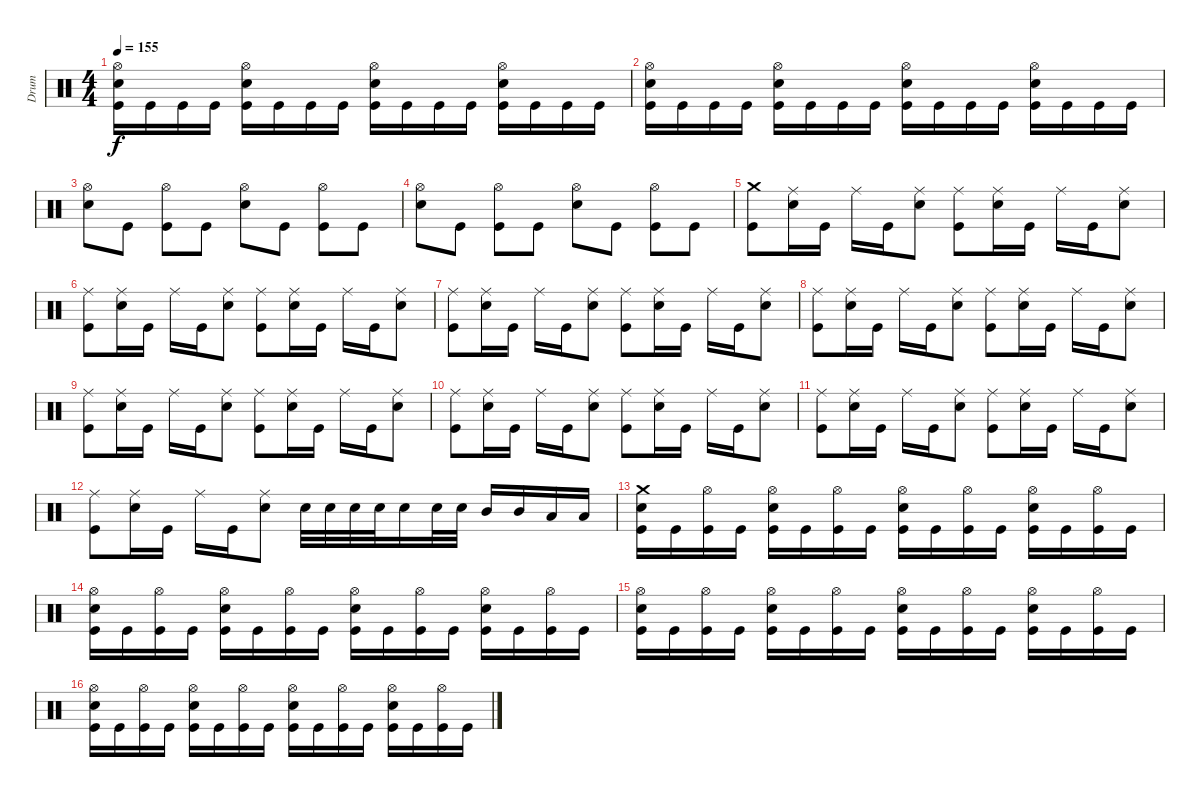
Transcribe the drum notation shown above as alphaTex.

\track ("Drum" "Drum") {instrument percussion}
\staff {score}
\articulation defaults
\ts (4 4)
\tempo 155
\clef neutral
\ks c
("Kick (hit)" "Electric Snare (hit)" "Hi-Hat (open)").16{dy f} "Kick (hit)".16 "Kick (hit)".16 "Kick (hit)".16 ("Kick (hit)" "Electric Snare (hit)" "Hi-Hat (open)").16 "Kick (hit)".16 "Kick (hit)".16 "Kick (hit)".16 ("Kick (hit)" "Electric Snare (hit)" "Hi-Hat (open)").16 "Kick (hit)".16 "Kick (hit)".16 "Kick (hit)".16 ("Kick (hit)" "Electric Snare (hit)" "Hi-Hat (open)").16 "Kick (hit)".16 "Kick (hit)".16 "Kick (hit)".16 |
("Kick (hit)" "Electric Snare (hit)" "Hi-Hat (open)").16 "Kick (hit)".16 "Kick (hit)".16 "Kick (hit)".16 ("Kick (hit)" "Electric Snare (hit)" "Hi-Hat (open)").16 "Kick (hit)".16 "Kick (hit)".16 "Kick (hit)".16 ("Kick (hit)" "Electric Snare (hit)" "Hi-Hat (open)").16 "Kick (hit)".16 "Kick (hit)".16 "Kick (hit)".16 ("Kick (hit)" "Electric Snare (hit)" "Hi-Hat (open)").16 "Kick (hit)".16 "Kick (hit)".16 "Kick (hit)".16 |
("Electric Snare (hit)" "Hi-Hat (open)").8 "Kick (hit)".8 ("Kick (hit)" "Hi-Hat (open)").8 "Kick (hit)".8 ("Electric Snare (hit)" "Hi-Hat (open)").8 "Kick (hit)".8 ("Kick (hit)" "Hi-Hat (open)").8 "Kick (hit)".8 |
("Electric Snare (hit)" "Hi-Hat (open)").8 "Kick (hit)".8 ("Kick (hit)" "Hi-Hat (open)").8 "Kick (hit)".8 ("Electric Snare (hit)" "Hi-Hat (open)").8 "Kick (hit)".8 ("Kick (hit)" "Hi-Hat (open)").8 "Kick (hit)".8 |
("Kick (hit)" "Crash medium (hit)").8 ("Electric Snare (hit)" "Ride (middle)").16 "Kick (hit)".16 "Ride (middle)".16 "Kick (hit)".16 ("Electric Snare (hit)" "Ride (middle)").8 ("Kick (hit)" "Ride (middle)").8 ("Electric Snare (hit)" "Ride (middle)").16 "Kick (hit)".16 "Ride (middle)".16 "Kick (hit)".16 ("Electric Snare (hit)" "Ride (middle)").8 |
("Kick (hit)" "Ride (middle)").8 ("Electric Snare (hit)" "Ride (middle)").16 "Kick (hit)".16 "Ride (middle)".16 "Kick (hit)".16 ("Electric Snare (hit)" "Ride (middle)").8 ("Kick (hit)" "Ride (middle)").8 ("Electric Snare (hit)" "Ride (middle)").16 "Kick (hit)".16 "Ride (middle)".16 "Kick (hit)".16 ("Electric Snare (hit)" "Ride (middle)").8 |
("Kick (hit)" "Ride (middle)").8 ("Electric Snare (hit)" "Ride (middle)").16 "Kick (hit)".16 "Ride (middle)".16 "Kick (hit)".16 ("Electric Snare (hit)" "Ride (middle)").8 ("Kick (hit)" "Ride (middle)").8 ("Electric Snare (hit)" "Ride (middle)").16 "Kick (hit)".16 "Ride (middle)".16 "Kick (hit)".16 ("Electric Snare (hit)" "Ride (middle)").8 |
("Kick (hit)" "Ride (middle)").8 ("Electric Snare (hit)" "Ride (middle)").16 "Kick (hit)".16 "Ride (middle)".16 "Kick (hit)".16 ("Electric Snare (hit)" "Ride (middle)").8 ("Kick (hit)" "Ride (middle)").8 ("Electric Snare (hit)" "Ride (middle)").16 "Kick (hit)".16 "Ride (middle)".16 "Kick (hit)".16 ("Electric Snare (hit)" "Ride (middle)").8 |
("Kick (hit)" "Ride (middle)").8 ("Electric Snare (hit)" "Ride (middle)").16 "Kick (hit)".16 "Ride (middle)".16 "Kick (hit)".16 ("Electric Snare (hit)" "Ride (middle)").8 ("Kick (hit)" "Ride (middle)").8 ("Electric Snare (hit)" "Ride (middle)").16 "Kick (hit)".16 "Ride (middle)".16 "Kick (hit)".16 ("Electric Snare (hit)" "Ride (middle)").8 |
("Kick (hit)" "Ride (middle)").8 ("Electric Snare (hit)" "Ride (middle)").16 "Kick (hit)".16 "Ride (middle)".16 "Kick (hit)".16 ("Electric Snare (hit)" "Ride (middle)").8 ("Kick (hit)" "Ride (middle)").8 ("Electric Snare (hit)" "Ride (middle)").16 "Kick (hit)".16 "Ride (middle)".16 "Kick (hit)".16 ("Electric Snare (hit)" "Ride (middle)").8 |
("Kick (hit)" "Ride (middle)").8 ("Electric Snare (hit)" "Ride (middle)").16 "Kick (hit)".16 "Ride (middle)".16 "Kick (hit)".16 ("Electric Snare (hit)" "Ride (middle)").8 ("Kick (hit)" "Ride (middle)").8 ("Electric Snare (hit)" "Ride (middle)").16 "Kick (hit)".16 "Ride (middle)".16 "Kick (hit)".16 ("Electric Snare (hit)" "Ride (middle)").8 |
("Kick (hit)" "Ride (middle)").8 ("Electric Snare (hit)" "Ride (middle)").16 "Kick (hit)".16 "Ride (middle)".16 "Kick (hit)".16 ("Electric Snare (hit)" "Ride (middle)").8 "Electric Snare (hit)".32 "Electric Snare (hit)".32 "Electric Snare (hit)".32 "Electric Snare (hit)".32 "Electric Snare (hit)".16 "Electric Snare (hit)".32 "Electric Snare (hit)".32 "Mid Tom (hit)".16 "Mid Tom (hit)".16 "Low Tom (hit)".16 "Low Tom (hit)".16 |
("Kick (hit)" "Electric Snare (hit)" "Crash medium (hit)").16 "Kick (hit)".16 ("Kick (hit)" "Hi-Hat (open)").16 "Kick (hit)".16 ("Kick (hit)" "Electric Snare (hit)" "Hi-Hat (open)").16 "Kick (hit)".16 ("Kick (hit)" "Hi-Hat (open)").16 "Kick (hit)".16 ("Kick (hit)" "Electric Snare (hit)" "Hi-Hat (open)").16 "Kick (hit)".16 ("Kick (hit)" "Hi-Hat (open)").16 "Kick (hit)".16 ("Kick (hit)" "Electric Snare (hit)" "Hi-Hat (open)").16 "Kick (hit)".16 ("Kick (hit)" "Hi-Hat (open)").16 "Kick (hit)".16 |
("Kick (hit)" "Electric Snare (hit)" "Hi-Hat (open)").16 "Kick (hit)".16 ("Kick (hit)" "Hi-Hat (open)").16 "Kick (hit)".16 ("Kick (hit)" "Electric Snare (hit)" "Hi-Hat (open)").16 "Kick (hit)".16 ("Kick (hit)" "Hi-Hat (open)").16 "Kick (hit)".16 ("Kick (hit)" "Electric Snare (hit)" "Hi-Hat (open)").16 "Kick (hit)".16 ("Kick (hit)" "Hi-Hat (open)").16 "Kick (hit)".16 ("Kick (hit)" "Electric Snare (hit)" "Hi-Hat (open)").16 "Kick (hit)".16 ("Kick (hit)" "Hi-Hat (open)").16 "Kick (hit)".16 |
("Kick (hit)" "Electric Snare (hit)" "Hi-Hat (open)").16 "Kick (hit)".16 ("Kick (hit)" "Hi-Hat (open)").16 "Kick (hit)".16 ("Kick (hit)" "Electric Snare (hit)" "Hi-Hat (open)").16 "Kick (hit)".16 ("Kick (hit)" "Hi-Hat (open)").16 "Kick (hit)".16 ("Kick (hit)" "Electric Snare (hit)" "Hi-Hat (open)").16 "Kick (hit)".16 ("Kick (hit)" "Hi-Hat (open)").16 "Kick (hit)".16 ("Kick (hit)" "Electric Snare (hit)" "Hi-Hat (open)").16 "Kick (hit)".16 ("Kick (hit)" "Hi-Hat (open)").16 "Kick (hit)".16 |
("Kick (hit)" "Electric Snare (hit)" "Hi-Hat (open)").16 "Kick (hit)".16 ("Kick (hit)" "Hi-Hat (open)").16 "Kick (hit)".16 ("Kick (hit)" "Electric Snare (hit)" "Hi-Hat (open)").16 "Kick (hit)".16 ("Kick (hit)" "Hi-Hat (open)").16 "Kick (hit)".16 ("Kick (hit)" "Electric Snare (hit)" "Hi-Hat (open)").16 "Kick (hit)".16 ("Kick (hit)" "Hi-Hat (open)").16 "Kick (hit)".16 ("Kick (hit)" "Electric Snare (hit)" "Hi-Hat (open)").16 "Kick (hit)".16 ("Kick (hit)" "Hi-Hat (open)").16 "Kick (hit)".16
